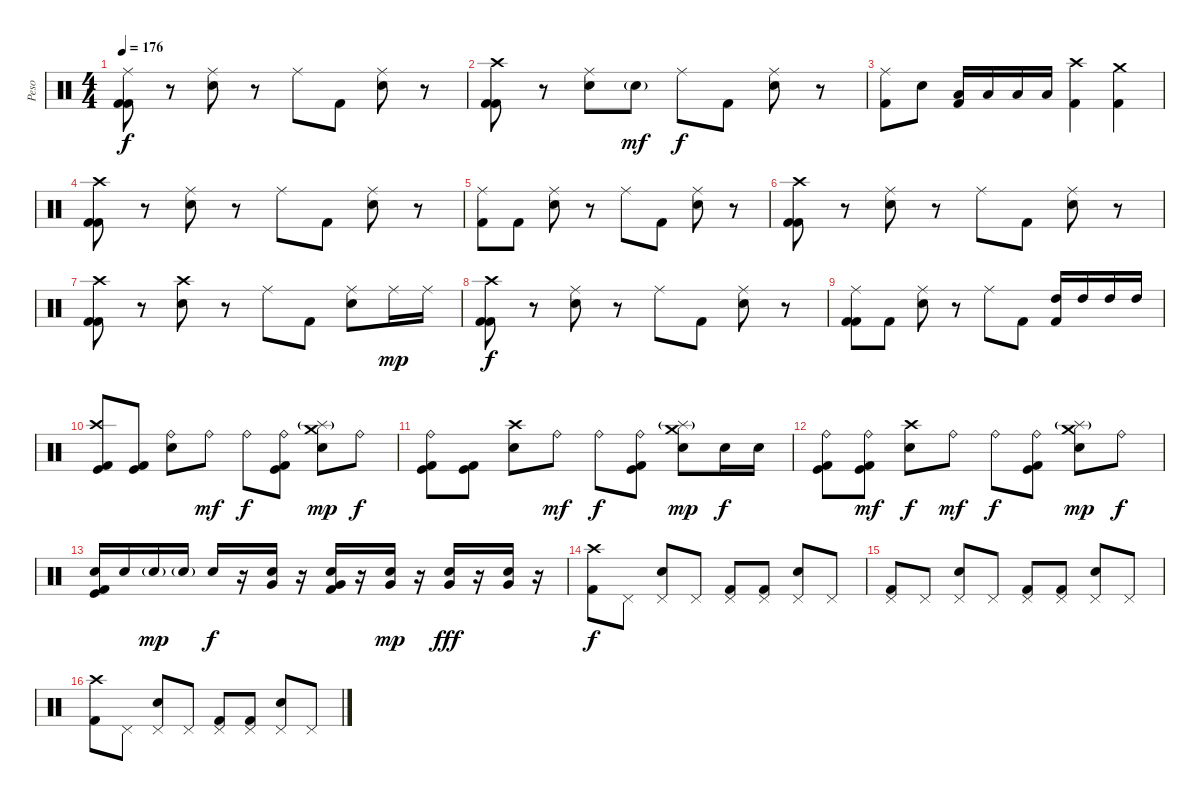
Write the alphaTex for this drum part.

\track ("Peso" "Peso") {instrument percussion}
\staff {score}
\articulation defaults
\ts (4 4)
\tempo 176
\clef neutral
\ks c
("Ride (middle)" "Kick (hit) 2" "Kick (hit) 2").8{dy f} r.8 ("Ride (middle)" "Electric Snare (hit)").8 r.8 "Ride (middle)".8 "Kick (hit) 2".8 ("Ride (middle)" "Electric Snare (hit)").8 r.8 |
("Crash high (hit)" "Kick (hit) 2" "Kick (hit) 2").8 r.8 ("Ride (middle)" "Electric Snare (hit)").8 "Electric Snare (hit)"{g}.8{dy mf} "Ride (middle)".8{dy f} "Kick (hit) 2".8 ("Ride (middle)" "Electric Snare (hit)").8 r.8 |
("Ride (middle)" "Kick (hit) 2").8 "Electric Snare (hit)".8 ("Low Tom (hit)" "Kick (hit) 2").16 "Low Tom (hit)".16 "Low Tom (hit)".16 "Low Tom (hit)".16 ("Crash high (hit)" "Kick (hit) 2").4 ("Crash medium (hit)" "Kick (hit) 2").4 |
("Crash high (hit)" "Kick (hit) 2" "Kick (hit) 2").8 r.8 ("Ride (middle)" "Electric Snare (hit)").8 r.8 "Ride (middle)".8 "Kick (hit) 2".8 ("Ride (middle)" "Electric Snare (hit)").8 r.8 |
("Ride (middle)" "Kick (hit) 2").8 "Kick (hit) 2".8 ("Ride (middle)" "Electric Snare (hit)").8 r.8 "Ride (middle)".8 "Kick (hit) 2".8 ("Ride (middle)" "Electric Snare (hit)").8 r.8 |
("Crash high (hit)" "Kick (hit) 2" "Kick (hit) 2").8 r.8 ("Ride (middle)" "Electric Snare (hit)").8 r.8 "Ride (middle)".8 "Kick (hit) 2".8 ("Ride (middle)" "Electric Snare (hit)").8 r.8 |
("Crash high (hit)" "Kick (hit) 2" "Kick (hit) 2").8 r.8 ("Crash high (hit)" "Electric Snare (hit)").8 r.8 "Ride (middle)".8 "Kick (hit) 2".8 ("Ride (middle)" "Electric Snare (hit)").8 "Ride (middle)".16{dy mp} "Ride (middle)".16 |
("Crash high (hit)" "Kick (hit) 2" "Kick (hit) 2").8{dy f} r.8 ("Ride (middle)" "Electric Snare (hit)").8 r.8 "Ride (middle)".8 "Kick (hit) 2".8 ("Ride (middle)" "Electric Snare (hit)").8 r.8 |
("Ride (middle)" "Kick (hit) 2" "Kick (hit) 2").8 "Kick (hit) 2".8 ("Ride (middle)" "Electric Snare (hit)").8 r.8 "Ride (middle)".8 "Kick (hit) 2".8 ("High Tom (hit)" "Kick (hit) 2").16 "High Tom (hit)".16 "High Tom (hit)".16 "High Tom (hit)".16 |
("Crash high (hit)" "Kick (hit)" "Kick (hit) 2").8 ("Kick (hit)" "Kick (hit) 2").8 ("Ride (bell)" "Electric Snare (hit)").8 "Ride (bell)".8{dy mf} "Ride (bell)".8{dy f} ("Ride (bell)" "Kick (hit)" "Kick (hit) 2").8 ("Crash medium (hit)" "Splash (hit)"{g} "Electric Snare (hit)").8{dy mp} "Ride (bell)".8{dy f} |
("Ride (bell)" "Kick (hit)" "Kick (hit) 2").8 ("Kick (hit)" "Kick (hit) 2").8 ("Crash high (hit)" "Electric Snare (hit)").8 "Ride (bell)".8{dy mf} "Ride (bell)".8{dy f} ("Ride (bell)" "Kick (hit)" "Kick (hit) 2").8 ("Crash medium (hit)" "Splash (hit)"{g} "Electric Snare (hit)").8{dy mp} "Electric Snare (hit)".16{dy f} "Electric Snare (hit)".16 |
("Ride (bell)" "Kick (hit)" "Kick (hit) 2").8 ("Ride (bell)" "Kick (hit)" "Kick (hit) 2").8{dy mf} ("Crash high (hit)" "Electric Snare (hit)").8{dy f} "Ride (bell)".8{dy mf} "Ride (bell)".8{dy f} ("Ride (bell)" "Kick (hit)" "Kick (hit) 2").8 ("Crash medium (hit)" "Splash (hit)"{g} "Electric Snare (hit)").8{dy mp} "Ride (bell)".8{dy f} |
("Electric Snare (hit)" "Kick (hit)" "Kick (hit) 2").16 "Electric Snare (hit)".16 "Electric Snare (hit)"{g}.16{dy mp} "Electric Snare (hit)"{g}.16 "Electric Snare (hit)".16{dy f} r.16 ("Very Low Tom (hit)" "Electric Snare (hit)").16 r.16 ("Very Low Tom (hit)" "Electric Snare (hit)" "Kick (hit) 2").16 r.16 ("Very Low Tom (hit)" "Electric Snare (hit)").16{dy mp} r.16 ("Very Low Tom (hit)" "Electric Snare (hit)").16{dy fff} r.16 ("Very Low Tom (hit)" "Electric Snare (hit)").16 r.16 |
("Crash high (hit)" "Kick (hit) 2").8{dy f} "Pedal Hi-Hat (hit)".8 ("Pedal Hi-Hat (hit)" "Electric Snare (hit)").8 "Pedal Hi-Hat (hit)".8 ("Pedal Hi-Hat (hit)" "Kick (hit) 2").8 ("Pedal Hi-Hat (hit)" "Kick (hit) 2").8 ("Pedal Hi-Hat (hit)" "Electric Snare (hit)").8 "Pedal Hi-Hat (hit)".8 |
("Pedal Hi-Hat (hit)" "Kick (hit) 2").8 "Pedal Hi-Hat (hit)".8 ("Pedal Hi-Hat (hit)" "Electric Snare (hit)").8 "Pedal Hi-Hat (hit)".8 ("Pedal Hi-Hat (hit)" "Kick (hit) 2").8 ("Pedal Hi-Hat (hit)" "Kick (hit) 2").8 ("Pedal Hi-Hat (hit)" "Electric Snare (hit)").8 "Pedal Hi-Hat (hit)".8 |
("Crash high (hit)" "Kick (hit) 2").8 "Pedal Hi-Hat (hit)".8 ("Pedal Hi-Hat (hit)" "Electric Snare (hit)").8 "Pedal Hi-Hat (hit)".8 ("Pedal Hi-Hat (hit)" "Kick (hit) 2").8 ("Pedal Hi-Hat (hit)" "Kick (hit) 2").8 ("Pedal Hi-Hat (hit)" "Electric Snare (hit)").8 "Pedal Hi-Hat (hit)".8
